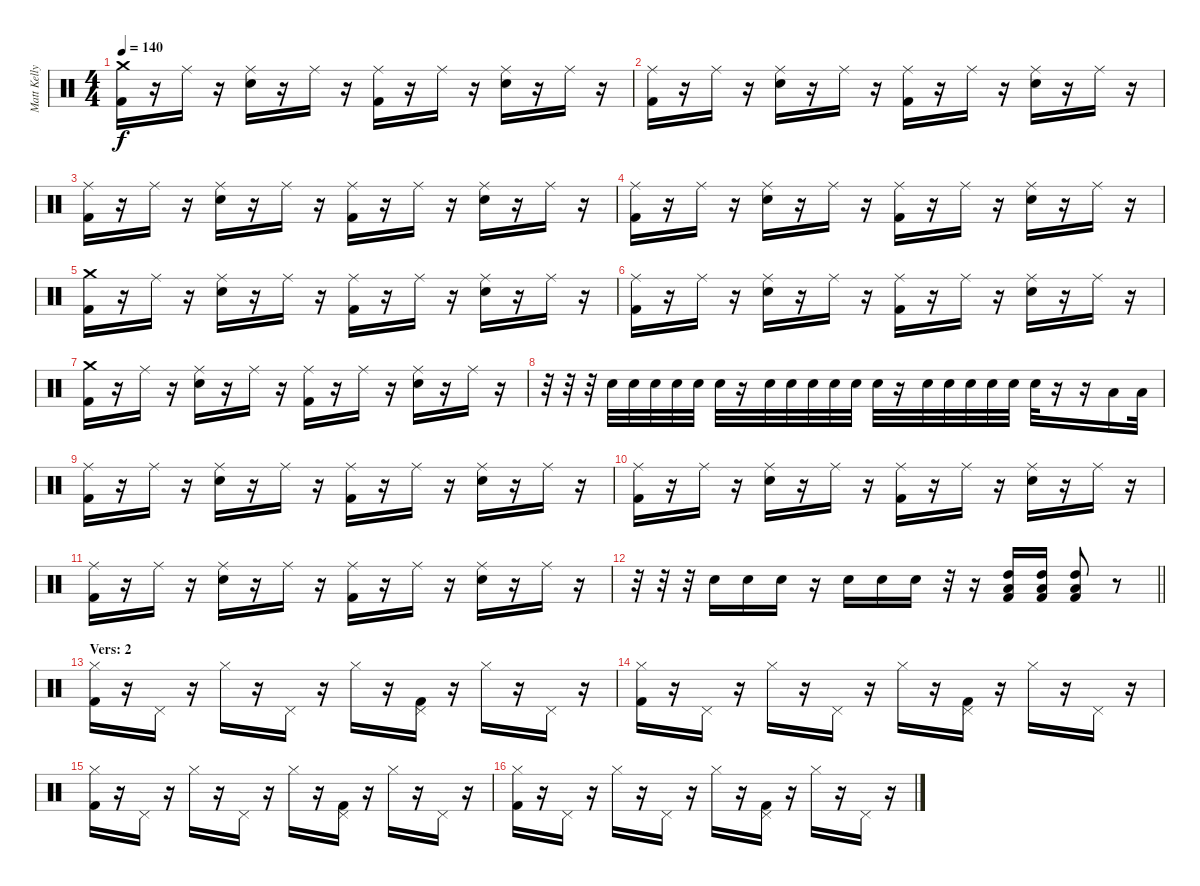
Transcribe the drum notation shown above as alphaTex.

\track ("Matt Kelly" "Matt Kelly") {instrument percussion}
\staff {score}
\articulation defaults
\ts (4 4)
\tempo 140
\clef neutral
\ks c
("Crash medium (hit)" "Kick (hit) 2").16{dy f} r.16 "Ride (middle)".16 r.16 ("Ride (middle)" "Snare (hit) 2").16 r.16 "Ride (middle)".16 r.16 ("Ride (middle)" "Kick (hit) 2").16 r.16 "Ride (middle)".16 r.16 ("Ride (middle)" "Snare (hit) 2").16 r.16 "Ride (middle)".16 r.16 |
("Ride (middle)" "Kick (hit) 2").16 r.16 "Ride (middle)".16 r.16 ("Ride (middle)" "Snare (hit) 2").16 r.16 "Ride (middle)".16 r.16 ("Ride (middle)" "Kick (hit) 2").16 r.16 "Ride (middle)".16 r.16 ("Ride (middle)" "Snare (hit) 2").16 r.16 "Ride (middle)".16 r.16 |
("Ride (middle)" "Kick (hit) 2").16 r.16 "Ride (middle)".16 r.16 ("Ride (middle)" "Snare (hit) 2").16 r.16 "Ride (middle)".16 r.16 ("Ride (middle)" "Kick (hit) 2").16 r.16 "Ride (middle)".16 r.16 ("Ride (middle)" "Snare (hit) 2").16 r.16 "Ride (middle)".16 r.16 |
("Ride (middle)" "Kick (hit) 2").16 r.16 "Ride (middle)".16 r.16 ("Ride (middle)" "Snare (hit) 2").16 r.16 "Ride (middle)".16 r.16 ("Ride (middle)" "Kick (hit) 2").16 r.16 "Ride (middle)".16 r.16 ("Ride (middle)" "Snare (hit) 2").16 r.16 "Ride (middle)".16 r.16 |
("Crash medium (hit)" "Kick (hit) 2").16 r.16 "Ride (middle)".16 r.16 ("Ride (middle)" "Snare (hit) 2").16 r.16 "Ride (middle)".16 r.16 ("Ride (middle)" "Kick (hit) 2").16 r.16 "Ride (middle)".16 r.16 ("Ride (middle)" "Snare (hit) 2").16 r.16 "Ride (middle)".16 r.16 |
("Ride (middle)" "Kick (hit) 2").16 r.16 "Ride (middle)".16 r.16 ("Ride (middle)" "Snare (hit) 2").16 r.16 "Ride (middle)".16 r.16 ("Ride (middle)" "Kick (hit) 2").16 r.16 "Ride (middle)".16 r.16 ("Ride (middle)" "Snare (hit) 2").16 r.16 "Ride (middle)".16 r.16 |
("Crash medium (hit)" "Kick (hit) 2").16 r.16 "Ride (middle)".16 r.16 ("Ride (middle)" "Snare (hit) 2").16 r.16 "Ride (middle)".16 r.16 ("Ride (middle)" "Kick (hit) 2").16 r.16 "Ride (middle)".16 r.16 ("Ride (middle)" "Snare (hit) 2").16 r.16 "Ride (middle)".16 r.16 |
r.32 r.32 r.32 "Electric Snare (hit)".32 "Electric Snare (hit)".32 "Electric Snare (hit)".32 "Electric Snare (hit)".32 "Electric Snare (hit)".32 "Snare (hit) 2".32 r.16 "Electric Snare (hit)".32 "Electric Snare (hit)".32 "Electric Snare (hit)".32 "Electric Snare (hit)".32 "Electric Snare (hit)".32 "Snare (hit) 2".32 r.16 "Electric Snare (hit)".32 "Electric Snare (hit)".32 "Electric Snare (hit)".32 "Electric Snare (hit)".32 "Electric Snare (hit)".32 "Snare (hit) 2".32 r.16 r.16 "Low Tom (hit)".16 "Low Floor Tom (hit)".32 |
("Ride (middle)" "Kick (hit) 2").16 r.16 "Ride (middle)".16 r.16 ("Ride (middle)" "Snare (hit) 2").16 r.16 "Ride (middle)".16 r.16 ("Ride (middle)" "Kick (hit) 2").16 r.16 "Ride (middle)".16 r.16 ("Ride (middle)" "Snare (hit) 2").16 r.16 "Ride (middle)".16 r.16 |
("Ride (middle)" "Kick (hit) 2").16 r.16 "Ride (middle)".16 r.16 ("Ride (middle)" "Snare (hit) 2").16 r.16 "Ride (middle)".16 r.16 ("Ride (middle)" "Kick (hit) 2").16 r.16 "Ride (middle)".16 r.16 ("Ride (middle)" "Snare (hit) 2").16 r.16 "Ride (middle)".16 r.16 |
("Ride (middle)" "Kick (hit) 2").16 r.16 "Ride (middle)".16 r.16 ("Ride (middle)" "Snare (hit) 2").16 r.16 "Ride (middle)".16 r.16 ("Ride (middle)" "Kick (hit) 2").16 r.16 "Ride (middle)".16 r.16 ("Ride (middle)" "Snare (hit) 2").16 r.16 "Ride (middle)".16 r.16 |
\barLineRight lightlight
r.32 r.32 r.32 "Electric Snare (hit)".16 "Electric Snare (hit)".16 "Snare (hit) 2".16 r.16 "Electric Snare (hit)".16 "Electric Snare (hit)".16 "Snare (hit) 2".16 r.32 r.16 ("Low Floor Tom (hit)" "High Tom (hit)" "Kick (hit) 2").16 ("Low Floor Tom (hit)" "High Tom (hit)" "Kick (hit) 2").16 ("Low Floor Tom (hit)" "High Tom (hit)" "Kick (hit) 2").8 r.8 |
\section ("" "Vers: 2")
("Hi-Hat (closed)" "Kick (hit) 2").16 r.16 "Pedal Hi-Hat (hit)".16 r.16 "Hi-Hat (closed)".16 r.16 "Pedal Hi-Hat (hit)".16 r.16 "Hi-Hat (closed)".16 r.16 ("Pedal Hi-Hat (hit)" "Kick (hit) 2").16 r.16 "Hi-Hat (closed)".16 r.16 "Pedal Hi-Hat (hit)".16 r.16 |
("Hi-Hat (closed)" "Kick (hit) 2").16 r.16 "Pedal Hi-Hat (hit)".16 r.16 "Hi-Hat (closed)".16 r.16 "Pedal Hi-Hat (hit)".16 r.16 "Hi-Hat (closed)".16 r.16 ("Pedal Hi-Hat (hit)" "Kick (hit) 2").16 r.16 "Hi-Hat (closed)".16 r.16 "Pedal Hi-Hat (hit)".16 r.16 |
("Hi-Hat (closed)" "Kick (hit) 2").16 r.16 "Pedal Hi-Hat (hit)".16 r.16 "Hi-Hat (closed)".16 r.16 "Pedal Hi-Hat (hit)".16 r.16 "Hi-Hat (closed)".16 r.16 ("Pedal Hi-Hat (hit)" "Kick (hit) 2").16 r.16 "Hi-Hat (closed)".16 r.16 "Pedal Hi-Hat (hit)".16 r.16 |
("Hi-Hat (closed)" "Kick (hit) 2").16 r.16 "Pedal Hi-Hat (hit)".16 r.16 "Hi-Hat (closed)".16 r.16 "Pedal Hi-Hat (hit)".16 r.16 "Hi-Hat (closed)".16 r.16 ("Pedal Hi-Hat (hit)" "Kick (hit) 2").16 r.16 "Hi-Hat (closed)".16 r.16 "Pedal Hi-Hat (hit)".16 r.16
